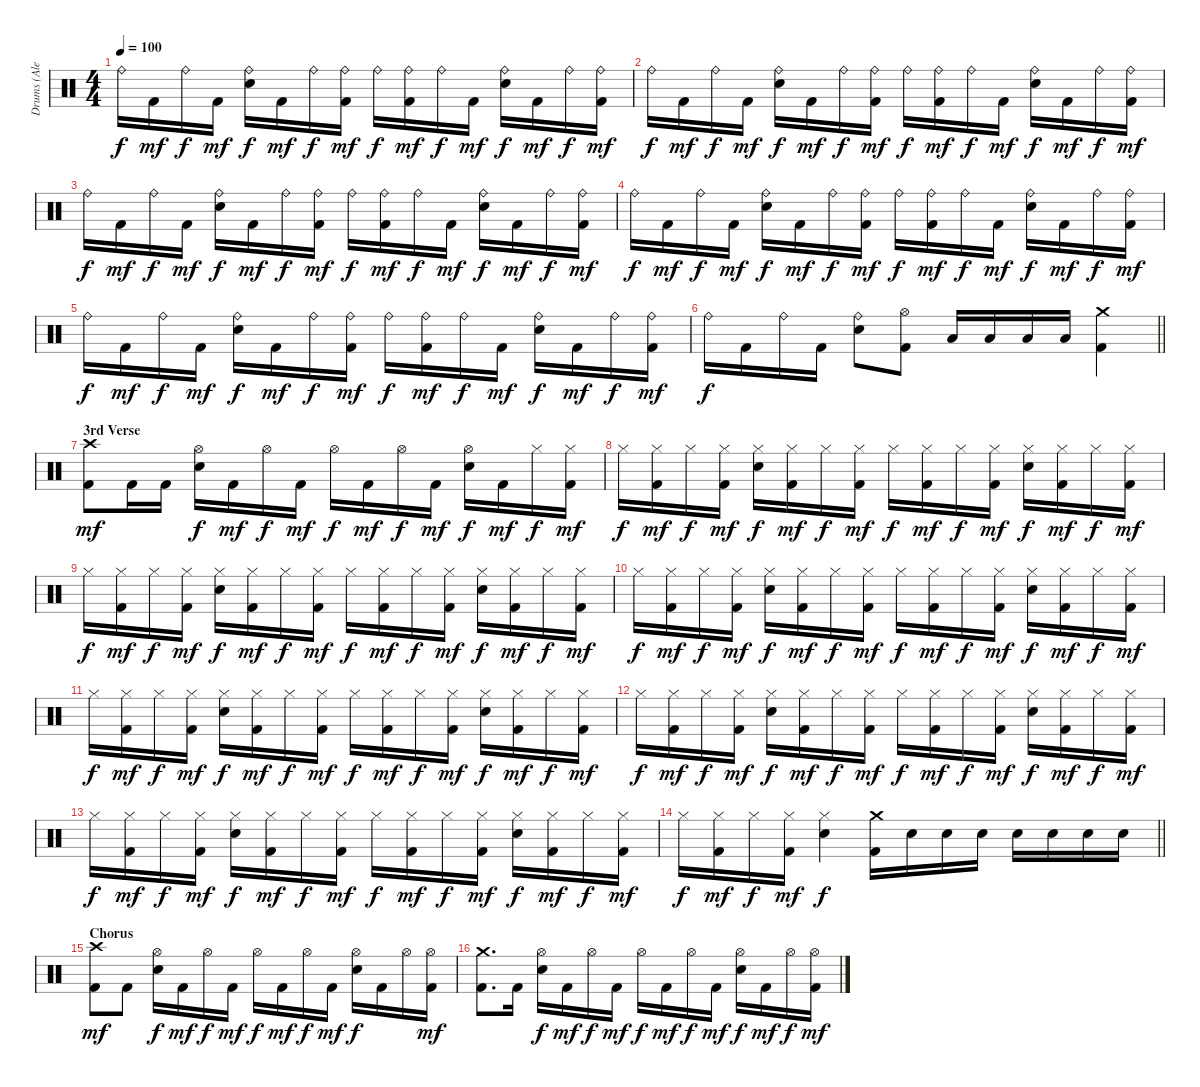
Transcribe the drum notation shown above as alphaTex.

\track ("Drums (Alex Van Halen)" "Drums (Ale") {instrument percussion}
\staff {score}
\articulation defaults
\ts (4 4)
\tempo 100
\clef neutral
\ks c "Ride (bell)".16{dy f} "Kick (hit) 2".16{dy mf} "Ride (bell)".16{dy f} "Kick (hit) 2".16{dy mf}
("Snare (hit) 2" "Ride (bell)").16{dy f} "Kick (hit) 2".16{dy mf} "Ride (bell)".16{dy f} ("Kick (hit) 2" "Ride (bell)").16{dy mf} "Ride (bell)".16{dy f} ("Kick (hit) 2" "Ride (bell)").16{dy mf} "Ride (bell)".16{dy f} "Kick (hit) 2".16{dy mf} ("Snare (hit) 2" "Ride (bell)").16{dy f} "Kick (hit) 2".16{dy mf} "Ride (bell)".16{dy f} ("Kick (hit) 2" "Ride (bell)").16{dy mf} |
"Ride (bell)".16{dy f} "Kick (hit) 2".16{dy mf} "Ride (bell)".16{dy f} "Kick (hit) 2".16{dy mf} ("Snare (hit) 2" "Ride (bell)").16{dy f} "Kick (hit) 2".16{dy mf} "Ride (bell)".16{dy f} ("Kick (hit) 2" "Ride (bell)").16{dy mf} "Ride (bell)".16{dy f} ("Kick (hit) 2" "Ride (bell)").16{dy mf} "Ride (bell)".16{dy f} "Kick (hit) 2".16{dy mf} ("Snare (hit) 2" "Ride (bell)").16{dy f} "Kick (hit) 2".16{dy mf} "Ride (bell)".16{dy f} ("Kick (hit) 2" "Ride (bell)").16{dy mf} |
"Ride (bell)".16{dy f} "Kick (hit) 2".16{dy mf} "Ride (bell)".16{dy f} "Kick (hit) 2".16{dy mf} ("Snare (hit) 2" "Ride (bell)").16{dy f} "Kick (hit) 2".16{dy mf} "Ride (bell)".16{dy f} ("Kick (hit) 2" "Ride (bell)").16{dy mf} "Ride (bell)".16{dy f} ("Kick (hit) 2" "Ride (bell)").16{dy mf} "Ride (bell)".16{dy f} "Kick (hit) 2".16{dy mf} ("Snare (hit) 2" "Ride (bell)").16{dy f} "Kick (hit) 2".16{dy mf} "Ride (bell)".16{dy f} ("Kick (hit) 2" "Ride (bell)").16{dy mf} |
"Ride (bell)".16{dy f} "Kick (hit) 2".16{dy mf} "Ride (bell)".16{dy f} "Kick (hit) 2".16{dy mf} ("Snare (hit) 2" "Ride (bell)").16{dy f} "Kick (hit) 2".16{dy mf} "Ride (bell)".16{dy f} ("Kick (hit) 2" "Ride (bell)").16{dy mf} "Ride (bell)".16{dy f} ("Kick (hit) 2" "Ride (bell)").16{dy mf} "Ride (bell)".16{dy f} "Kick (hit) 2".16{dy mf} ("Snare (hit) 2" "Ride (bell)").16{dy f} "Kick (hit) 2".16{dy mf} "Ride (bell)".16{dy f} ("Kick (hit) 2" "Ride (bell)").16{dy mf} |
"Ride (bell)".16{dy f} "Kick (hit) 2".16{dy mf} "Ride (bell)".16{dy f} "Kick (hit) 2".16{dy mf} ("Snare (hit) 2" "Ride (bell)").16{dy f} "Kick (hit) 2".16{dy mf} "Ride (bell)".16{dy f} ("Kick (hit) 2" "Ride (bell)").16{dy mf} "Ride (bell)".16{dy f} ("Kick (hit) 2" "Ride (bell)").16{dy mf} "Ride (bell)".16{dy f} "Kick (hit) 2".16{dy mf} ("Snare (hit) 2" "Ride (bell)").16{dy f} "Kick (hit) 2".16{dy mf} "Ride (bell)".16{dy f} ("Kick (hit) 2" "Ride (bell)").16{dy mf} |
\barLineRight lightlight "Ride (bell)".16{dy f} "Kick (hit) 2".16 "Ride (bell)".16 "Kick (hit) 2".16
("Snare (hit) 2" "Ride (bell)").8 ("Kick (hit) 2" "Hi-Hat (open)").8 "Low Tom (hit)".16 "Low Tom (hit)".16 "Low Tom (hit)".16 "Low Tom (hit)".16 ("Kick (hit) 2" "Crash medium (hit)").4 |
\section ("" "3rd Verse")
("Kick (hit) 2" "Crash high (hit)").8{dy mf} "Kick (hit) 2".16 "Kick (hit) 2".16 ("Snare (hit) 2" "Hi-Hat (open)").16{dy f} "Kick (hit) 2".16{dy mf} "Hi-Hat (open)".16{dy f} "Kick (hit) 2".16{dy mf} "Hi-Hat (open)".16{dy f} "Kick (hit) 2".16{dy mf} "Hi-Hat (open)".16{dy f} "Kick (hit) 2".16{dy mf} ("Snare (hit) 2" "Hi-Hat (open)").16{dy f} "Kick (hit) 2".16{dy mf} "Hi-Hat (closed)".16{dy f} ("Kick (hit) 2" "Hi-Hat (closed)").16{dy mf} |
"Hi-Hat (closed)".16{dy f} ("Kick (hit) 2" "Hi-Hat (closed)").16{dy mf} "Hi-Hat (closed)".16{dy f} ("Kick (hit) 2" "Hi-Hat (closed)").16{dy mf} ("Snare (hit) 2" "Hi-Hat (closed)").16{dy f} ("Kick (hit) 2" "Hi-Hat (closed)").16{dy mf} "Hi-Hat (closed)".16{dy f} ("Kick (hit) 2" "Hi-Hat (closed)").16{dy mf} "Hi-Hat (closed)".16{dy f} ("Kick (hit) 2" "Hi-Hat (closed)").16{dy mf} "Hi-Hat (closed)".16{dy f} ("Kick (hit) 2" "Hi-Hat (closed)").16{dy mf} ("Snare (hit) 2" "Hi-Hat (closed)").16{dy f} ("Kick (hit) 2" "Hi-Hat (closed)").16{dy mf} "Hi-Hat (closed)".16{dy f} ("Kick (hit) 2" "Hi-Hat (closed)").16{dy mf} |
"Hi-Hat (closed)".16{dy f} ("Kick (hit) 2" "Hi-Hat (closed)").16{dy mf} "Hi-Hat (closed)".16{dy f} ("Kick (hit) 2" "Hi-Hat (closed)").16{dy mf} ("Snare (hit) 2" "Hi-Hat (closed)").16{dy f} ("Kick (hit) 2" "Hi-Hat (closed)").16{dy mf} "Hi-Hat (closed)".16{dy f} ("Kick (hit) 2" "Hi-Hat (closed)").16{dy mf} "Hi-Hat (closed)".16{dy f} ("Kick (hit) 2" "Hi-Hat (closed)").16{dy mf} "Hi-Hat (closed)".16{dy f} ("Kick (hit) 2" "Hi-Hat (closed)").16{dy mf} ("Snare (hit) 2" "Hi-Hat (closed)").16{dy f} ("Kick (hit) 2" "Hi-Hat (closed)").16{dy mf} "Hi-Hat (closed)".16{dy f} ("Kick (hit) 2" "Hi-Hat (closed)").16{dy mf} |
"Hi-Hat (closed)".16{dy f} ("Kick (hit) 2" "Hi-Hat (closed)").16{dy mf} "Hi-Hat (closed)".16{dy f} ("Kick (hit) 2" "Hi-Hat (closed)").16{dy mf} ("Snare (hit) 2" "Hi-Hat (closed)").16{dy f} ("Kick (hit) 2" "Hi-Hat (closed)").16{dy mf} "Hi-Hat (closed)".16{dy f} ("Kick (hit) 2" "Hi-Hat (closed)").16{dy mf} "Hi-Hat (closed)".16{dy f} ("Kick (hit) 2" "Hi-Hat (closed)").16{dy mf} "Hi-Hat (closed)".16{dy f} ("Kick (hit) 2" "Hi-Hat (closed)").16{dy mf} ("Snare (hit) 2" "Hi-Hat (closed)").16{dy f} ("Kick (hit) 2" "Hi-Hat (closed)").16{dy mf} "Hi-Hat (closed)".16{dy f} ("Kick (hit) 2" "Hi-Hat (closed)").16{dy mf} |
"Hi-Hat (closed)".16{dy f} ("Kick (hit) 2" "Hi-Hat (closed)").16{dy mf} "Hi-Hat (closed)".16{dy f} ("Kick (hit) 2" "Hi-Hat (closed)").16{dy mf} ("Snare (hit) 2" "Hi-Hat (closed)").16{dy f} ("Kick (hit) 2" "Hi-Hat (closed)").16{dy mf} "Hi-Hat (closed)".16{dy f} ("Kick (hit) 2" "Hi-Hat (closed)").16{dy mf} "Hi-Hat (closed)".16{dy f} ("Kick (hit) 2" "Hi-Hat (closed)").16{dy mf} "Hi-Hat (closed)".16{dy f} ("Kick (hit) 2" "Hi-Hat (closed)").16{dy mf} ("Snare (hit) 2" "Hi-Hat (closed)").16{dy f} ("Kick (hit) 2" "Hi-Hat (closed)").16{dy mf} "Hi-Hat (closed)".16{dy f} ("Kick (hit) 2" "Hi-Hat (closed)").16{dy mf} |
"Hi-Hat (closed)".16{dy f} ("Kick (hit) 2" "Hi-Hat (closed)").16{dy mf} "Hi-Hat (closed)".16{dy f} ("Kick (hit) 2" "Hi-Hat (closed)").16{dy mf} ("Snare (hit) 2" "Hi-Hat (closed)").16{dy f} ("Kick (hit) 2" "Hi-Hat (closed)").16{dy mf} "Hi-Hat (closed)".16{dy f} ("Kick (hit) 2" "Hi-Hat (closed)").16{dy mf} "Hi-Hat (closed)".16{dy f} ("Kick (hit) 2" "Hi-Hat (closed)").16{dy mf} "Hi-Hat (closed)".16{dy f} ("Kick (hit) 2" "Hi-Hat (closed)").16{dy mf} ("Snare (hit) 2" "Hi-Hat (closed)").16{dy f} ("Kick (hit) 2" "Hi-Hat (closed)").16{dy mf} "Hi-Hat (closed)".16{dy f} ("Kick (hit) 2" "Hi-Hat (closed)").16{dy mf} |
"Hi-Hat (closed)".16{dy f} ("Kick (hit) 2" "Hi-Hat (closed)").16{dy mf} "Hi-Hat (closed)".16{dy f} ("Kick (hit) 2" "Hi-Hat (closed)").16{dy mf} ("Snare (hit) 2" "Hi-Hat (closed)").16{dy f} ("Kick (hit) 2" "Hi-Hat (closed)").16{dy mf} "Hi-Hat (closed)".16{dy f} ("Kick (hit) 2" "Hi-Hat (closed)").16{dy mf} "Hi-Hat (closed)".16{dy f} ("Kick (hit) 2" "Hi-Hat (closed)").16{dy mf} "Hi-Hat (closed)".16{dy f} ("Kick (hit) 2" "Hi-Hat (closed)").16{dy mf} ("Snare (hit) 2" "Hi-Hat (closed)").16{dy f} ("Kick (hit) 2" "Hi-Hat (closed)").16{dy mf} "Hi-Hat (closed)".16{dy f} ("Kick (hit) 2" "Hi-Hat (closed)").16{dy mf} |
\barLineRight lightlight "Hi-Hat (closed)".16{dy f}
("Kick (hit) 2" "Hi-Hat (closed)").16{dy mf} "Hi-Hat (closed)".16{dy f} ("Kick (hit) 2" "Hi-Hat (closed)").16{dy mf} ("Snare (hit) 2" "Hi-Hat (closed)").4{dy f} ("Kick (hit) 2" "Crash medium (hit)").16 "Snare (hit) 2".16 "Snare (hit) 2".16 "Snare (hit) 2".16 "Snare (hit) 2".16 "Snare (hit) 2".16 "Snare (hit) 2".16 "Snare (hit) 2".16 |
\section ("" "Chorus")
("Kick (hit) 2" "Crash high (hit)").8{dy mf} "Kick (hit) 2".8 ("Snare (hit) 2" "Hi-Hat (open)").16{dy f} "Kick (hit) 2".16{dy mf} "Hi-Hat (open)".16{dy f} "Kick (hit) 2".16{dy mf} "Hi-Hat (open)".16{dy f} "Kick (hit) 2".16{dy mf} "Hi-Hat (open)".16{dy f} "Kick (hit) 2".16{dy mf} ("Snare (hit) 2" "Hi-Hat (open)").16{dy f} "Kick (hit) 2".16 "Hi-Hat (open)".16 ("Kick (hit) 2" "Hi-Hat (open)").16{dy mf} |
("Kick (hit) 2" "Crash medium (hit)").8{d} "Kick (hit) 2".16 ("Snare (hit) 2" "Hi-Hat (open)").16{dy f} "Kick (hit) 2".16{dy mf} "Hi-Hat (open)".16{dy f} "Kick (hit) 2".16{dy mf} "Hi-Hat (open)".16{dy f} "Kick (hit) 2".16{dy mf} "Hi-Hat (open)".16{dy f} "Kick (hit) 2".16{dy mf} ("Snare (hit) 2" "Hi-Hat (open)").16{dy f} "Kick (hit) 2".16{dy mf} "Hi-Hat (open)".16{dy f} ("Kick (hit) 2" "Hi-Hat (open)").16{dy mf}
